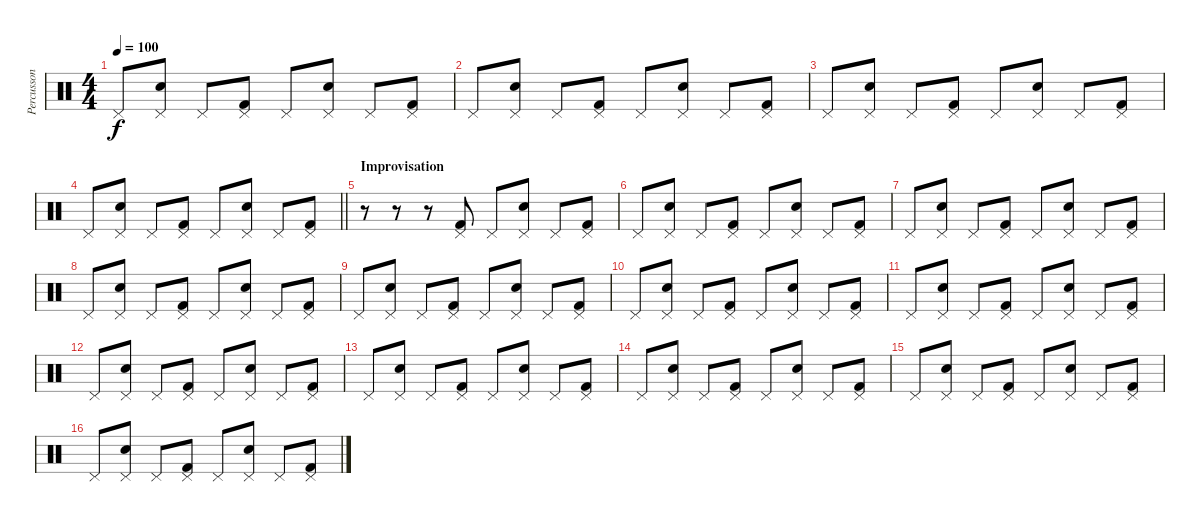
\track ("Percusson" "Percusson") {instrument percussion}
\staff {score}
\articulation defaults
\ts (4 4)
\tempo 100
\clef neutral
\ks c "Pedal Hi-Hat (hit)".8{dy f}
("Pedal Hi-Hat (hit)" "Electric Snare (hit)").8 "Pedal Hi-Hat (hit)".8 ("Pedal Hi-Hat (hit)" "Kick (hit) 2").8 "Pedal Hi-Hat (hit)".8 ("Pedal Hi-Hat (hit)" "Electric Snare (hit)").8 "Pedal Hi-Hat (hit)".8 ("Pedal Hi-Hat (hit)" "Kick (hit) 2").8 |
"Pedal Hi-Hat (hit)".8 ("Pedal Hi-Hat (hit)" "Electric Snare (hit)").8 "Pedal Hi-Hat (hit)".8 ("Pedal Hi-Hat (hit)" "Kick (hit) 2").8 "Pedal Hi-Hat (hit)".8 ("Pedal Hi-Hat (hit)" "Electric Snare (hit)").8 "Pedal Hi-Hat (hit)".8 ("Pedal Hi-Hat (hit)" "Kick (hit) 2").8 |
"Pedal Hi-Hat (hit)".8 ("Pedal Hi-Hat (hit)" "Electric Snare (hit)").8 "Pedal Hi-Hat (hit)".8 ("Pedal Hi-Hat (hit)" "Kick (hit) 2").8 "Pedal Hi-Hat (hit)".8 ("Pedal Hi-Hat (hit)" "Electric Snare (hit)").8 "Pedal Hi-Hat (hit)".8 ("Pedal Hi-Hat (hit)" "Kick (hit) 2").8 |
\barLineRight lightlight "Pedal Hi-Hat (hit)".8
("Pedal Hi-Hat (hit)" "Electric Snare (hit)").8 "Pedal Hi-Hat (hit)".8 ("Pedal Hi-Hat (hit)" "Kick (hit) 2").8 "Pedal Hi-Hat (hit)".8 ("Pedal Hi-Hat (hit)" "Electric Snare (hit)").8 "Pedal Hi-Hat (hit)".8 ("Pedal Hi-Hat (hit)" "Kick (hit) 2").8 |
\section ("" "Improvisation")
r.8 r.8 r.8 ("Pedal Hi-Hat (hit)" "Kick (hit) 2").8 "Pedal Hi-Hat (hit)".8 ("Pedal Hi-Hat (hit)" "Electric Snare (hit)").8 "Pedal Hi-Hat (hit)".8 ("Pedal Hi-Hat (hit)" "Kick (hit) 2").8 |
"Pedal Hi-Hat (hit)".8 ("Pedal Hi-Hat (hit)" "Electric Snare (hit)").8 "Pedal Hi-Hat (hit)".8 ("Pedal Hi-Hat (hit)" "Kick (hit) 2").8 "Pedal Hi-Hat (hit)".8 ("Pedal Hi-Hat (hit)" "Electric Snare (hit)").8 "Pedal Hi-Hat (hit)".8 ("Pedal Hi-Hat (hit)" "Kick (hit) 2").8 |
"Pedal Hi-Hat (hit)".8 ("Pedal Hi-Hat (hit)" "Electric Snare (hit)").8 "Pedal Hi-Hat (hit)".8 ("Pedal Hi-Hat (hit)" "Kick (hit) 2").8 "Pedal Hi-Hat (hit)".8 ("Pedal Hi-Hat (hit)" "Electric Snare (hit)").8 "Pedal Hi-Hat (hit)".8 ("Pedal Hi-Hat (hit)" "Kick (hit) 2").8 |
"Pedal Hi-Hat (hit)".8 ("Pedal Hi-Hat (hit)" "Electric Snare (hit)").8 "Pedal Hi-Hat (hit)".8 ("Pedal Hi-Hat (hit)" "Kick (hit) 2").8 "Pedal Hi-Hat (hit)".8 ("Pedal Hi-Hat (hit)" "Electric Snare (hit)").8 "Pedal Hi-Hat (hit)".8 ("Pedal Hi-Hat (hit)" "Kick (hit) 2").8 |
"Pedal Hi-Hat (hit)".8 ("Pedal Hi-Hat (hit)" "Electric Snare (hit)").8 "Pedal Hi-Hat (hit)".8 ("Pedal Hi-Hat (hit)" "Kick (hit) 2").8 "Pedal Hi-Hat (hit)".8 ("Pedal Hi-Hat (hit)" "Electric Snare (hit)").8 "Pedal Hi-Hat (hit)".8 ("Pedal Hi-Hat (hit)" "Kick (hit) 2").8 |
"Pedal Hi-Hat (hit)".8 ("Pedal Hi-Hat (hit)" "Electric Snare (hit)").8 "Pedal Hi-Hat (hit)".8 ("Pedal Hi-Hat (hit)" "Kick (hit) 2").8 "Pedal Hi-Hat (hit)".8 ("Pedal Hi-Hat (hit)" "Electric Snare (hit)").8 "Pedal Hi-Hat (hit)".8 ("Pedal Hi-Hat (hit)" "Kick (hit) 2").8 |
"Pedal Hi-Hat (hit)".8 ("Pedal Hi-Hat (hit)" "Electric Snare (hit)").8 "Pedal Hi-Hat (hit)".8 ("Pedal Hi-Hat (hit)" "Kick (hit) 2").8 "Pedal Hi-Hat (hit)".8 ("Pedal Hi-Hat (hit)" "Electric Snare (hit)").8 "Pedal Hi-Hat (hit)".8 ("Pedal Hi-Hat (hit)" "Kick (hit) 2").8 |
"Pedal Hi-Hat (hit)".8 ("Pedal Hi-Hat (hit)" "Electric Snare (hit)").8 "Pedal Hi-Hat (hit)".8 ("Pedal Hi-Hat (hit)" "Kick (hit) 2").8 "Pedal Hi-Hat (hit)".8 ("Pedal Hi-Hat (hit)" "Electric Snare (hit)").8 "Pedal Hi-Hat (hit)".8 ("Pedal Hi-Hat (hit)" "Kick (hit) 2").8 |
"Pedal Hi-Hat (hit)".8 ("Pedal Hi-Hat (hit)" "Electric Snare (hit)").8 "Pedal Hi-Hat (hit)".8 ("Pedal Hi-Hat (hit)" "Kick (hit) 2").8 "Pedal Hi-Hat (hit)".8 ("Pedal Hi-Hat (hit)" "Electric Snare (hit)").8 "Pedal Hi-Hat (hit)".8 ("Pedal Hi-Hat (hit)" "Kick (hit) 2").8 |
"Pedal Hi-Hat (hit)".8 ("Pedal Hi-Hat (hit)" "Electric Snare (hit)").8 "Pedal Hi-Hat (hit)".8 ("Pedal Hi-Hat (hit)" "Kick (hit) 2").8 "Pedal Hi-Hat (hit)".8 ("Pedal Hi-Hat (hit)" "Electric Snare (hit)").8 "Pedal Hi-Hat (hit)".8 ("Pedal Hi-Hat (hit)" "Kick (hit) 2").8 |
"Pedal Hi-Hat (hit)".8 ("Pedal Hi-Hat (hit)" "Electric Snare (hit)").8 "Pedal Hi-Hat (hit)".8 ("Pedal Hi-Hat (hit)" "Kick (hit) 2").8 "Pedal Hi-Hat (hit)".8 ("Pedal Hi-Hat (hit)" "Electric Snare (hit)").8 "Pedal Hi-Hat (hit)".8 ("Pedal Hi-Hat (hit)" "Kick (hit) 2").8 |
"Pedal Hi-Hat (hit)".8 ("Pedal Hi-Hat (hit)" "Electric Snare (hit)").8 "Pedal Hi-Hat (hit)".8 ("Pedal Hi-Hat (hit)" "Kick (hit) 2").8 "Pedal Hi-Hat (hit)".8 ("Pedal Hi-Hat (hit)" "Electric Snare (hit)").8 "Pedal Hi-Hat (hit)".8 ("Pedal Hi-Hat (hit)" "Kick (hit) 2").8
